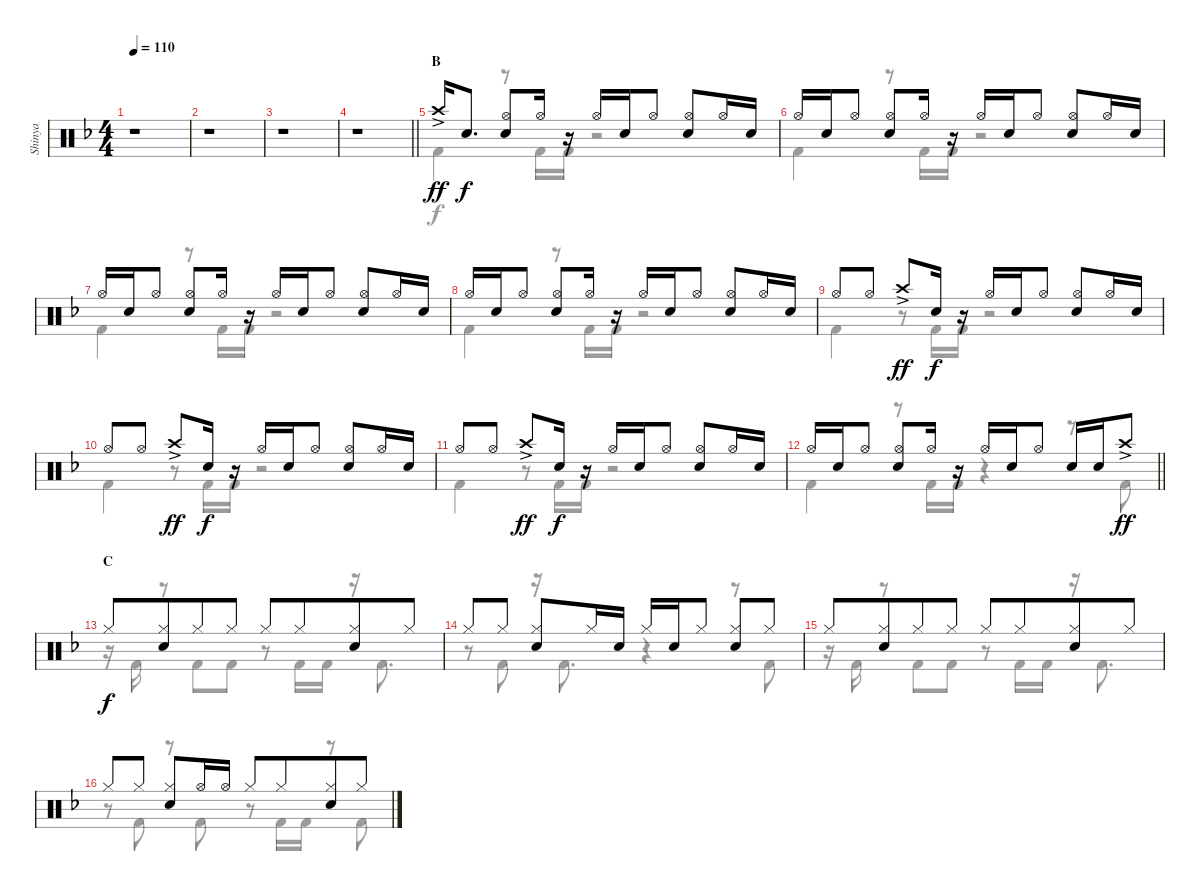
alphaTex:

\track ("Shinya" "Shinya") {instrument percussion}
\staff {score}
\articulation defaults
\voice
\ts (4 4)
\tempo 110
\clef neutral
\ks dminor
r.1{dy ff} |
r.1 |
r.1 |
\barLineRight lightlight
r.1 |
\section ("" "B")
"Crash high (hit)"{ac}.16 "Snare (hit) 2".8{d dy f} ("Hi-Hat (open)" "Snare (hit) 2").8 "Hi-Hat (open)".16 r.16 "Hi-Hat (open)".16 "Snare (hit) 2".16 "Hi-Hat (open)".8 ("Hi-Hat (open)" "Snare (hit) 2").8 "Hi-Hat (open)".16 "Snare (hit) 2".16 |
"Hi-Hat (open)".16 "Snare (hit) 2".16 "Hi-Hat (open)".8 ("Hi-Hat (open)" "Snare (hit) 2").8 "Hi-Hat (open)".16 r.16 "Hi-Hat (open)".16 "Snare (hit) 2".16 "Hi-Hat (open)".8 ("Hi-Hat (open)" "Snare (hit) 2").8 "Hi-Hat (open)".16 "Snare (hit) 2".16 |
"Hi-Hat (open)".16 "Snare (hit) 2".16 "Hi-Hat (open)".8 ("Hi-Hat (open)" "Snare (hit) 2").8 "Hi-Hat (open)".16 r.16 "Hi-Hat (open)".16 "Snare (hit) 2".16 "Hi-Hat (open)".8 ("Hi-Hat (open)" "Snare (hit) 2").8 "Hi-Hat (open)".16 "Snare (hit) 2".16 |
"Hi-Hat (open)".16 "Snare (hit) 2".16 "Hi-Hat (open)".8 ("Hi-Hat (open)" "Snare (hit) 2").8 "Hi-Hat (open)".16 r.16 "Hi-Hat (open)".16 "Snare (hit) 2".16 "Hi-Hat (open)".8 ("Hi-Hat (open)" "Snare (hit) 2").8 "Hi-Hat (open)".16 "Snare (hit) 2".16 |
"Hi-Hat (open)".8 "Hi-Hat (open)".8 "Crash high (hit)"{ac}.8{dy ff} "Snare (hit) 2".16{dy f} r.16 "Hi-Hat (open)".16 "Snare (hit) 2".16 "Hi-Hat (open)".8 ("Hi-Hat (open)" "Snare (hit) 2").8 "Hi-Hat (open)".16 "Snare (hit) 2".16 |
"Hi-Hat (open)".8 "Hi-Hat (open)".8 "Crash high (hit)"{ac}.8{dy ff} "Snare (hit) 2".16{dy f} r.16 "Hi-Hat (open)".16 "Snare (hit) 2".16 "Hi-Hat (open)".8 ("Hi-Hat (open)" "Snare (hit) 2").8 "Hi-Hat (open)".16 "Snare (hit) 2".16 |
"Hi-Hat (open)".8 "Hi-Hat (open)".8 "Crash high (hit)"{ac}.8{dy ff} "Snare (hit) 2".16{dy f} r.16 "Hi-Hat (open)".16 "Snare (hit) 2".16 "Hi-Hat (open)".8 ("Hi-Hat (open)" "Snare (hit) 2").8 "Hi-Hat (open)".16 "Snare (hit) 2".16 |
\barLineRight lightlight "Hi-Hat (open)".16 "Snare (hit) 2".16 "Hi-Hat (open)".8
("Hi-Hat (open)" "Snare (hit) 2").8 "Hi-Hat (open)".16 r.16 "Hi-Hat (open)".16 "Snare (hit) 2".16 "Hi-Hat (open)".8 "Snare (hit) 2".16 "Snare (hit) 2".16 "Crash high (hit)"{ac}.8{dy ff} |
\section ("" "C")
"Hi-Hat (closed)".8{dy f} ("Hi-Hat (closed)" "Snare (hit) 2").8{beam merge} "Hi-Hat (closed)".8 "Hi-Hat (closed)".8 "Hi-Hat (closed)".8 "Hi-Hat (closed)".8{beam merge} ("Hi-Hat (closed)" "Snare (hit) 2").8 "Hi-Hat (closed)".8 |
"Hi-Hat (closed)".8 "Hi-Hat (closed)".8 ("Hi-Hat (closed)" "Snare (hit) 2").8 "Hi-Hat (closed)".16 "Snare (hit) 2".16 "Hi-Hat (closed)".16 "Snare (hit) 2".16 "Hi-Hat (closed)".8 ("Hi-Hat (closed)" "Snare (hit) 2").8 "Hi-Hat (closed)".8 |
"Hi-Hat (closed)".8 ("Hi-Hat (closed)" "Snare (hit) 2").8{beam merge} "Hi-Hat (closed)".8 "Hi-Hat (closed)".8 "Hi-Hat (closed)".8 "Hi-Hat (closed)".8{beam merge} ("Hi-Hat (closed)" "Snare (hit) 2").8 "Hi-Hat (closed)".8 |
"Hi-Hat (closed)".8 "Hi-Hat (closed)".8 ("Hi-Hat (closed)" "Snare (hit) 2").8 "Hi-Hat (open)".16 "Hi-Hat (open)".16 "Hi-Hat (closed)".8 "Hi-Hat (closed)".8{beam merge} ("Hi-Hat (closed)" "Snare (hit) 2").8 "Hi-Hat (closed)".8
\voice
\clef neutral
\ottava regular
\simile none
\ks dminor
r.1{dy f} |
r.1 |
r.1 |
\barLineRight lightlight
r.1 |
"Kick (hit) 2".4 r.8 "Kick (hit) 2".16 "Kick (hit) 2".16 r.2 |
"Kick (hit) 2".4 r.8 "Kick (hit) 2".16 "Kick (hit) 2".16 r.2 |
"Kick (hit) 2".4 r.8 "Kick (hit) 2".16 "Kick (hit) 2".16 r.2 |
"Kick (hit) 2".4 r.8 "Kick (hit) 2".16 "Kick (hit) 2".16 r.2 |
"Kick (hit) 2".4 r.8 "Kick (hit) 2".16 "Kick (hit) 2".16 r.2 |
"Kick (hit) 2".4 r.8 "Kick (hit) 2".16 "Kick (hit) 2".16 r.2 |
"Kick (hit) 2".4 r.8 "Kick (hit) 2".16 "Kick (hit) 2".16 r.2 |
\barLineRight lightlight "Kick (hit) 2".4
r.8 "Kick (hit) 2".16 "Kick (hit) 2".16 r.4 r.8 "Kick (hit) 2".8 |
r.16 "Kick (hit) 2".16 r.8 "Kick (hit) 2".8 "Kick (hit) 2".8 r.8 "Kick (hit) 2".16 "Kick (hit) 2".16 r.16 "Kick (hit) 2".8{d} |
r.8 "Kick (hit) 2".8 r.16 "Kick (hit) 2".8{d} r.4 r.8 "Kick (hit) 2".8 |
r.16 "Kick (hit) 2".16 r.8 "Kick (hit) 2".8 "Kick (hit) 2".8 r.8 "Kick (hit) 2".16 "Kick (hit) 2".16 r.16 "Kick (hit) 2".8{d} |
r.8 "Kick (hit) 2".8 r.8 "Kick (hit) 2".8 r.8 "Kick (hit) 2".16 "Kick (hit) 2".16 r.8 "Kick (hit) 2".8
